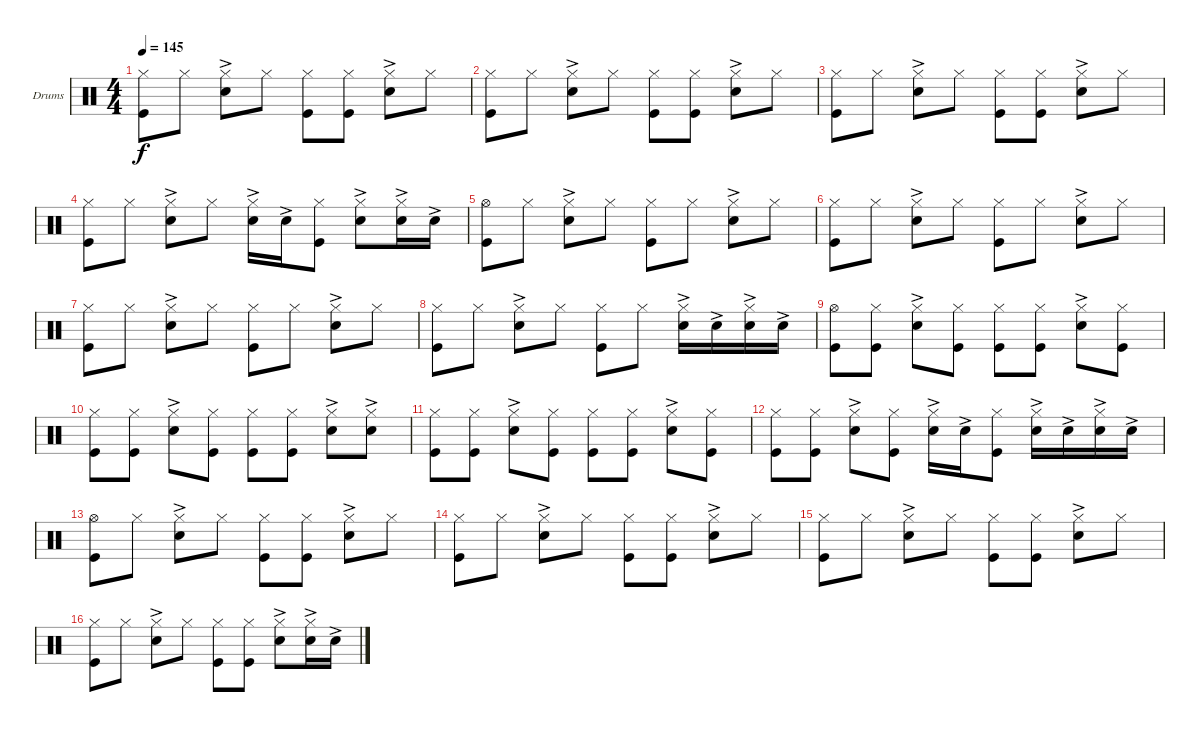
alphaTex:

\defaultSystemsLayout 4
\bracketExtendMode groupsimilarinstruments
\firstSystemTrackNameOrientation horizontal
\otherSystemsTrackNameOrientation horizontal
\track ("Drumkit" "Drums") {instrument percussion}
\staff {score}
\articulation defaults
\ts (4 4)
\tempo 145
\clef neutral
\ks c
("Hi-Hat (closed)" "Kick (hit)").8{dy f} "Hi-Hat (closed)".8 ("Hi-Hat (closed)" "Snare (hit) 2"{ac}).8 "Hi-Hat (closed)".8 ("Hi-Hat (closed)" "Kick (hit)").8 ("Hi-Hat (closed)" "Kick (hit)").8 ("Hi-Hat (closed)" "Snare (hit) 2"{ac}).8 "Hi-Hat (closed)".8 |
("Hi-Hat (closed)" "Kick (hit)").8 "Hi-Hat (closed)".8 ("Hi-Hat (closed)" "Snare (hit) 2"{ac}).8 "Hi-Hat (closed)".8 ("Hi-Hat (closed)" "Kick (hit)").8 ("Hi-Hat (closed)" "Kick (hit)").8 ("Hi-Hat (closed)" "Snare (hit) 2"{ac}).8 "Hi-Hat (closed)".8 |
("Hi-Hat (closed)" "Kick (hit)").8 "Hi-Hat (closed)".8 ("Hi-Hat (closed)" "Snare (hit) 2"{ac}).8 "Hi-Hat (closed)".8 ("Hi-Hat (closed)" "Kick (hit)").8 ("Hi-Hat (closed)" "Kick (hit)").8 ("Hi-Hat (closed)" "Snare (hit) 2"{ac}).8 "Hi-Hat (closed)".8 |
("Hi-Hat (closed)" "Kick (hit)").8 "Hi-Hat (closed)".8 ("Hi-Hat (closed)" "Snare (hit) 2"{ac}).8 "Hi-Hat (closed)".8 ("Snare (hit) 2"{ac} "Hi-Hat (closed)").16 "Snare (hit) 2"{ac}.16 ("Kick (hit)" "Hi-Hat (closed)").8 ("Hi-Hat (closed)" "Snare (hit) 2"{ac}).8 ("Hi-Hat (closed)" "Snare (hit) 2"{ac}).16 "Snare (hit) 2"{ac}.16 |
("Hi-Hat (open)" "Kick (hit)").8 "Hi-Hat (closed)".8 ("Hi-Hat (closed)" "Snare (hit) 2"{ac}).8 "Hi-Hat (closed)".8 ("Hi-Hat (closed)" "Kick (hit)").8 "Hi-Hat (closed)".8 ("Hi-Hat (closed)" "Snare (hit) 2"{ac}).8 "Hi-Hat (closed)".8 |
("Hi-Hat (closed)" "Kick (hit)").8 "Hi-Hat (closed)".8 ("Hi-Hat (closed)" "Snare (hit) 2"{ac}).8 "Hi-Hat (closed)".8 ("Hi-Hat (closed)" "Kick (hit)").8 "Hi-Hat (closed)".8 ("Hi-Hat (closed)" "Snare (hit) 2"{ac}).8 "Hi-Hat (closed)".8 |
("Hi-Hat (closed)" "Kick (hit)").8 "Hi-Hat (closed)".8 ("Hi-Hat (closed)" "Snare (hit) 2"{ac}).8 "Hi-Hat (closed)".8 ("Hi-Hat (closed)" "Kick (hit)").8 "Hi-Hat (closed)".8 ("Hi-Hat (closed)" "Snare (hit) 2"{ac}).8 "Hi-Hat (closed)".8 |
("Hi-Hat (closed)" "Kick (hit)").8 "Hi-Hat (closed)".8 ("Hi-Hat (closed)" "Snare (hit) 2"{ac}).8 "Hi-Hat (closed)".8 ("Hi-Hat (closed)" "Kick (hit)").8 "Hi-Hat (closed)".8 ("Hi-Hat (closed)" "Snare (hit) 2"{ac}).16 "Snare (hit) 2"{ac}.16 ("Hi-Hat (closed)" "Snare (hit) 2"{ac}).16 "Snare (hit) 2"{ac}.16 |
("Hi-Hat (open)" "Kick (hit)").8 ("Hi-Hat (closed)" "Kick (hit)").8 ("Hi-Hat (closed)" "Snare (hit) 2"{ac}).8 ("Hi-Hat (closed)" "Kick (hit)").8 ("Hi-Hat (closed)" "Kick (hit)").8 ("Hi-Hat (closed)" "Kick (hit)").8 ("Hi-Hat (closed)" "Snare (hit) 2"{ac}).8 ("Hi-Hat (closed)" "Kick (hit)").8 |
("Hi-Hat (closed)" "Kick (hit)").8 ("Hi-Hat (closed)" "Kick (hit)").8 ("Hi-Hat (closed)" "Snare (hit) 2"{ac}).8 ("Hi-Hat (closed)" "Kick (hit)").8 ("Hi-Hat (closed)" "Kick (hit)").8 ("Hi-Hat (closed)" "Kick (hit)").8 ("Hi-Hat (closed)" "Snare (hit) 2"{ac}).8 ("Hi-Hat (closed)" "Snare (hit) 2"{ac}).8 |
("Hi-Hat (closed)" "Kick (hit)").8 ("Hi-Hat (closed)" "Kick (hit)").8 ("Hi-Hat (closed)" "Snare (hit) 2"{ac}).8 ("Hi-Hat (closed)" "Kick (hit)").8 ("Hi-Hat (closed)" "Kick (hit)").8 ("Hi-Hat (closed)" "Kick (hit)").8 ("Hi-Hat (closed)" "Snare (hit) 2"{ac}).8 ("Hi-Hat (closed)" "Kick (hit)").8 |
("Hi-Hat (closed)" "Kick (hit)").8 ("Hi-Hat (closed)" "Kick (hit)").8 ("Hi-Hat (closed)" "Snare (hit) 2"{ac}).8 ("Hi-Hat (closed)" "Kick (hit)").8 ("Snare (hit) 2"{ac} "Hi-Hat (closed)").16 "Snare (hit) 2"{ac}.16 ("Kick (hit)" "Hi-Hat (closed)").8 ("Snare (hit) 2"{ac} "Hi-Hat (closed)").16 "Snare (hit) 2"{ac}.16 ("Snare (hit) 2"{ac} "Hi-Hat (closed)").16 "Snare (hit) 2"{ac}.16 |
("Hi-Hat (open)" "Kick (hit)").8 "Hi-Hat (closed)".8 ("Hi-Hat (closed)" "Snare (hit) 2"{ac}).8 "Hi-Hat (closed)".8 ("Hi-Hat (closed)" "Kick (hit)").8 ("Hi-Hat (closed)" "Kick (hit)").8 ("Hi-Hat (closed)" "Snare (hit) 2"{ac}).8 "Hi-Hat (closed)".8 |
("Hi-Hat (closed)" "Kick (hit)").8 "Hi-Hat (closed)".8 ("Hi-Hat (closed)" "Snare (hit) 2"{ac}).8 "Hi-Hat (closed)".8 ("Hi-Hat (closed)" "Kick (hit)").8 ("Hi-Hat (closed)" "Kick (hit)").8 ("Hi-Hat (closed)" "Snare (hit) 2"{ac}).8 "Hi-Hat (closed)".8 |
("Hi-Hat (closed)" "Kick (hit)").8 "Hi-Hat (closed)".8 ("Hi-Hat (closed)" "Snare (hit) 2"{ac}).8 "Hi-Hat (closed)".8 ("Hi-Hat (closed)" "Kick (hit)").8 ("Hi-Hat (closed)" "Kick (hit)").8 ("Hi-Hat (closed)" "Snare (hit) 2"{ac}).8 "Hi-Hat (closed)".8 |
("Hi-Hat (closed)" "Kick (hit)").8 "Hi-Hat (closed)".8 ("Hi-Hat (closed)" "Snare (hit) 2"{ac}).8 "Hi-Hat (closed)".8 ("Hi-Hat (closed)" "Kick (hit)").8 ("Hi-Hat (closed)" "Kick (hit)").8 ("Hi-Hat (closed)" "Snare (hit) 2"{ac}).8 ("Hi-Hat (closed)" "Snare (hit) 2"{ac}).16 "Snare (hit) 2"{ac}.16
